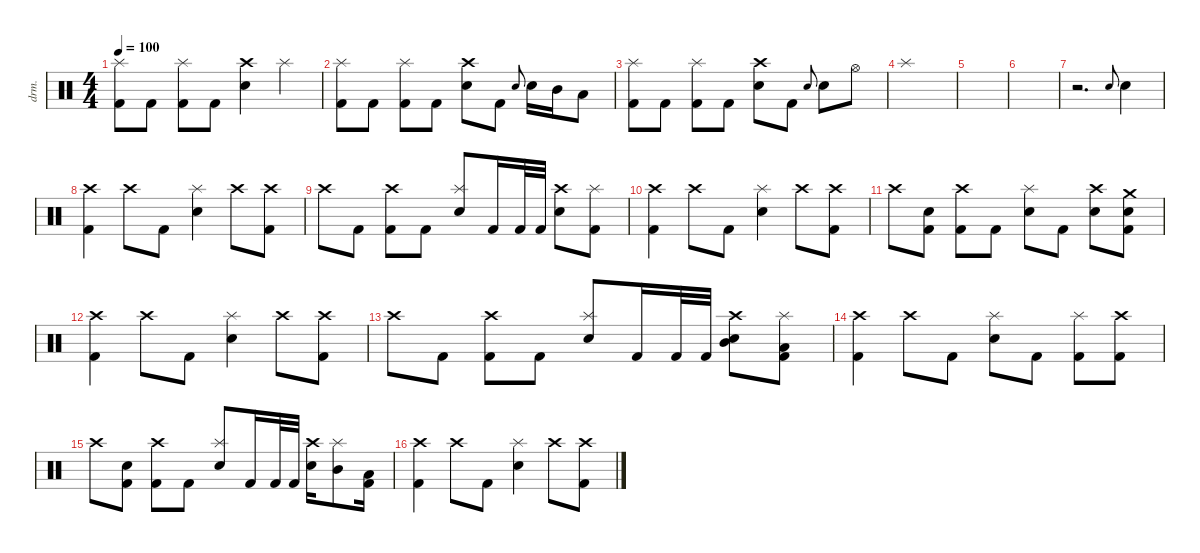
\defaultSystemsLayout 4
\hideDynamics
\bracketExtendMode nobrackets
\otherSystemsTrackNameOrientation horizontal
\track ("Jorge" "drm.") {instrument percussion}
\staff {score}
\articulation defaults
\ts (4 4)
\tempo 100
\clef neutral
\ks c
("Kick (hit) 2" "Splash (hit)").8{dy mf beam Down} "Kick (hit) 2".8{beam Down} ("Kick (hit) 2" "Splash (hit)").8{beam Down} "Kick (hit) 2".8{beam Down} ("Snare (hit) 2" "Crash high (hit)").4{beam Down} "Splash (hit)".4{beam Down} |
("Kick (hit) 2" "Splash (hit)").8{beam Down} "Kick (hit) 2".8{beam Down} ("Kick (hit) 2" "Splash (hit)").8{beam Down} "Kick (hit) 2".8{beam Down} ("Snare (hit) 2" "Crash high (hit)").8{beam Down} "Kick (hit) 2".8{beam Down} "Snare (hit) 2".8{gr onbeat beam Up} "Snare (hit) 2".16{beam Down} "Mid Tom (hit)".16{beam Down} "Low Tom (hit)".8{beam Down} |
("Kick (hit) 2" "Splash (hit)").8{beam Down} "Kick (hit) 2".8{beam Down} ("Kick (hit) 2" "Splash (hit)").8{beam Down} "Kick (hit) 2".8{beam Down} ("Snare (hit) 2" "Crash high (hit)").8{beam Down} "Kick (hit) 2".8{beam Down} "Snare (hit) 2".8{gr onbeat beam Up} "Snare (hit) 2".8{beam Down} "Hi-Hat (open)".8{beam Down} |
"Splash (hit)".1{beam Down} |
|
|
r.2{d beam Down} "Snare (hit) 2".8{gr onbeat beam Up} "Snare (hit) 2".4{beam Down} |
("Kick (hit) 2" "Crash high (hit)").4{beam Down} "Crash high (hit)".8{beam Down} "Kick (hit) 2".8{beam Down} ("Snare (hit) 2" "Splash (hit)").4{beam Down} "Crash high (hit)".8{beam Down} ("Crash high (hit)" "Kick (hit) 2").8{beam Down} |
"Crash high (hit)".8{beam Down} "Kick (hit) 2".8{beam Down} ("Kick (hit) 2" "Crash high (hit)").8{beam Down} "Kick (hit) 2".8{beam Down} ("Splash (hit)" "Snare (hit) 2").8{beam Up} "Kick (hit) 2".16{beam Up} "Kick (hit) 2".32{beam Up} "Kick (hit) 2".32{beam Up} ("Crash high (hit)" "Snare (hit) 2").8{beam Down} ("Kick (hit) 2" "Splash (hit)").8{beam Down} |
("Kick (hit) 2" "Crash high (hit)").4{beam Down} "Crash high (hit)".8{beam Down} "Kick (hit) 2".8{beam Down} ("Snare (hit) 2" "Splash (hit)").4{beam Down} "Crash high (hit)".8{beam Down} ("Crash high (hit)" "Kick (hit) 2").8{beam Down} |
"Crash high (hit)".8{beam Down} ("Kick (hit) 2" "Snare (hit) 2").8{beam Down} ("Kick (hit) 2" "Crash high (hit)").8{beam Down} "Kick (hit) 2".8{beam Down} ("Splash (hit)" "Snare (hit) 2").8{beam Down} "Kick (hit) 2".8{beam Down} ("Crash high (hit)" "Snare (hit) 2").8{beam Down} ("Kick (hit) 2" "Crash medium (hit)" "Snare (hit) 2").8{beam Down} |
("Kick (hit) 2" "Crash high (hit)").4{beam Down} "Crash high (hit)".8{beam Down} "Kick (hit) 2".8{beam Down} ("Snare (hit) 2" "Splash (hit)").4{beam Down} "Crash high (hit)".8{beam Down} ("Crash high (hit)" "Kick (hit) 2").8{beam Down} |
"Crash high (hit)".8{beam Down} "Kick (hit) 2".8{beam Down} ("Kick (hit) 2" "Crash high (hit)").8{beam Down} "Kick (hit) 2".8{beam Down} ("Splash (hit)" "Snare (hit) 2").8{beam Up} "Kick (hit) 2".16{beam Up} "Kick (hit) 2".32{beam Up} "Kick (hit) 2".32{beam Up} ("Crash high (hit)" "Snare (hit) 2" "Mid Tom (hit)").8{beam Down} ("Kick (hit) 2" "Splash (hit)" "Low Tom (hit)").8{beam Down} |
("Kick (hit) 2" "Crash high (hit)").4{beam Down} "Crash high (hit)".8{beam Down} "Kick (hit) 2".8{beam Down} ("Snare (hit) 2" "Splash (hit)").8{beam Down} "Kick (hit) 2".8{beam Down} ("Splash (hit)" "Kick (hit) 2").8{beam Down} ("Crash high (hit)" "Kick (hit) 2").8{beam Down} |
"Crash high (hit)".8{beam Down} ("Kick (hit) 2" "Snare (hit) 2").8{beam Down} ("Kick (hit) 2" "Crash high (hit)").8{beam Down} "Kick (hit) 2".8{beam Down} ("Splash (hit)" "Snare (hit) 2").8{beam Up} "Kick (hit) 2".16{beam Up} "Kick (hit) 2".32{beam Up} "Kick (hit) 2".32{beam Up} ("Crash high (hit)" "Snare (hit) 2").16{beam Down} ("Splash (hit)" "Mid Tom (hit)").8{beam Down} ("Low Tom (hit)" "Kick (hit) 2").16{beam Down} |
("Kick (hit) 2" "Crash high (hit)").4{beam Down} "Crash high (hit)".8{beam Down} "Kick (hit) 2".8{beam Down} ("Snare (hit) 2" "Splash (hit)").4{beam Down} "Crash high (hit)".8{beam Down} ("Crash high (hit)" "Kick (hit) 2").8{beam Down}
